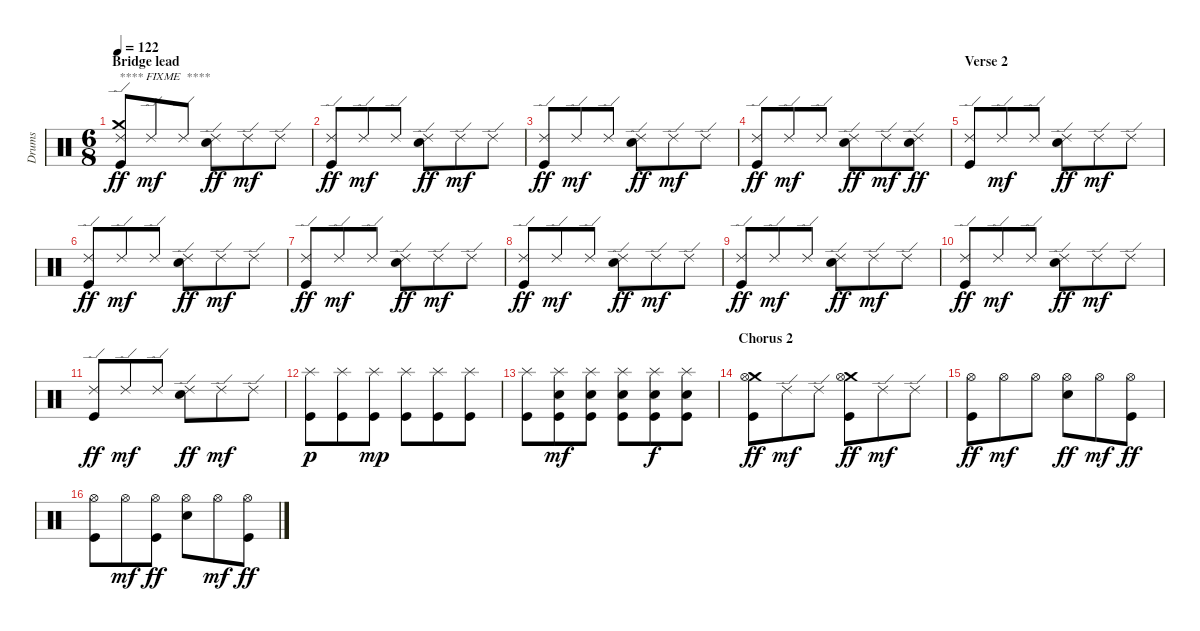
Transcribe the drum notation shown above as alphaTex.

\track ("Drums" "Drums") {instrument percussion}
\staff {score}
\articulation defaults
\ts (6 8)
\section ("" "Bridge lead")
\tempo 122
\clef neutral
\ks c
("Ride (edge) 2" "Crash medium (hit)" "Kick (hit)").8{txt "**** FIXME  ****" dy ff} "Ride (edge) 2".8{dy mf} "Ride (edge) 2".8 ("Ride (edge) 2" "Electric Snare (hit)").8{dy ff} "Ride (edge) 2".8{dy mf} "Ride (edge) 2".8 |
("Ride (edge) 2" "Kick (hit)").8{dy ff} "Ride (edge) 2".8{dy mf} "Ride (edge) 2".8 ("Ride (edge) 2" "Electric Snare (hit)").8{dy ff} "Ride (edge) 2".8{dy mf} "Ride (edge) 2".8 |
("Ride (edge) 2" "Kick (hit)").8{dy ff} "Ride (edge) 2".8{dy mf} "Ride (edge) 2".8 ("Ride (edge) 2" "Electric Snare (hit)").8{dy ff} "Ride (edge) 2".8{dy mf} "Ride (edge) 2".8 |
("Ride (edge) 2" "Kick (hit)").8{dy ff} "Ride (edge) 2".8{dy mf} "Ride (edge) 2".8 ("Ride (edge) 2" "Electric Snare (hit)").8{dy ff} "Ride (edge) 2".8{dy mf} ("Ride (edge) 2" "Electric Snare (hit)").8{dy ff} |
\section ("" "Verse 2")
("Ride (edge) 2" "Kick (hit)").8 "Ride (edge) 2".8{dy mf} "Ride (edge) 2".8 ("Ride (edge) 2" "Electric Snare (hit)").8{dy ff} "Ride (edge) 2".8{dy mf} "Ride (edge) 2".8 |
("Ride (edge) 2" "Kick (hit)").8{dy ff} "Ride (edge) 2".8{dy mf} "Ride (edge) 2".8 ("Ride (edge) 2" "Electric Snare (hit)").8{dy ff} "Ride (edge) 2".8{dy mf} "Ride (edge) 2".8 |
("Ride (edge) 2" "Kick (hit)").8{dy ff} "Ride (edge) 2".8{dy mf} "Ride (edge) 2".8 ("Ride (edge) 2" "Electric Snare (hit)").8{dy ff} "Ride (edge) 2".8{dy mf} "Ride (edge) 2".8 |
("Ride (edge) 2" "Kick (hit)").8{dy ff} "Ride (edge) 2".8{dy mf} "Ride (edge) 2".8 ("Ride (edge) 2" "Electric Snare (hit)").8{dy ff} "Ride (edge) 2".8{dy mf} "Ride (edge) 2".8 |
("Ride (edge) 2" "Kick (hit)").8{dy ff} "Ride (edge) 2".8{dy mf} "Ride (edge) 2".8 ("Ride (edge) 2" "Electric Snare (hit)").8{dy ff} "Ride (edge) 2".8{dy mf} "Ride (edge) 2".8 |
("Ride (edge) 2" "Kick (hit)").8{dy ff} "Ride (edge) 2".8{dy mf} "Ride (edge) 2".8 ("Ride (edge) 2" "Electric Snare (hit)").8{dy ff} "Ride (edge) 2".8{dy mf} "Ride (edge) 2".8 |
("Ride (edge) 2" "Kick (hit)").8{dy ff} "Ride (edge) 2".8{dy mf} "Ride (edge) 2".8 ("Ride (edge) 2" "Electric Snare (hit)").8{dy ff} "Ride (edge) 2".8{dy mf} "Ride (edge) 2".8 |
("Splash (hit)" "Kick (hit)").8{dy p} ("Splash (hit)" "Kick (hit)").8 ("Splash (hit)" "Kick (hit)").8{dy mp} ("Splash (hit)" "Kick (hit)").8 ("Splash (hit)" "Kick (hit)").8 ("Splash (hit)" "Kick (hit)").8 |
("Splash (hit)" "Kick (hit)").8 ("Splash (hit)" "Electric Snare (hit)" "Kick (hit)").8{dy mf} ("Splash (hit)" "Electric Snare (hit)" "Kick (hit)").8 ("Splash (hit)" "Electric Snare (hit)" "Kick (hit)").8 ("Splash (hit)" "Electric Snare (hit)" "Kick (hit)").8{dy f} ("Splash (hit)" "Electric Snare (hit)" "Kick (hit)").8 |
\section ("" "Chorus 2")
("Crash medium (hit)" "Hi-Hat (open)" "Kick (hit)").8{dy ff} "Ride (edge) 2".8{dy mf} "Ride (edge) 2".8 ("Crash medium (hit)" "Hi-Hat (open)" "Kick (hit)").8{dy ff} "Ride (edge) 2".8{dy mf} "Ride (edge) 2".8 |
("Hi-Hat (open)" "Kick (hit)").8{dy ff} "Hi-Hat (open)".8{dy mf} "Hi-Hat (open)".8 ("Hi-Hat (open)" "Electric Snare (hit)").8{dy ff} "Hi-Hat (open)".8{dy mf} ("Hi-Hat (open)" "Kick (hit)").8{dy ff} |
("Hi-Hat (open)" "Kick (hit)").8 "Hi-Hat (open)".8{dy mf} ("Hi-Hat (open)" "Kick (hit)").8{dy ff} ("Hi-Hat (open)" "Electric Snare (hit)").8 "Hi-Hat (open)".8{dy mf} ("Hi-Hat (open)" "Kick (hit)").8{dy ff}
